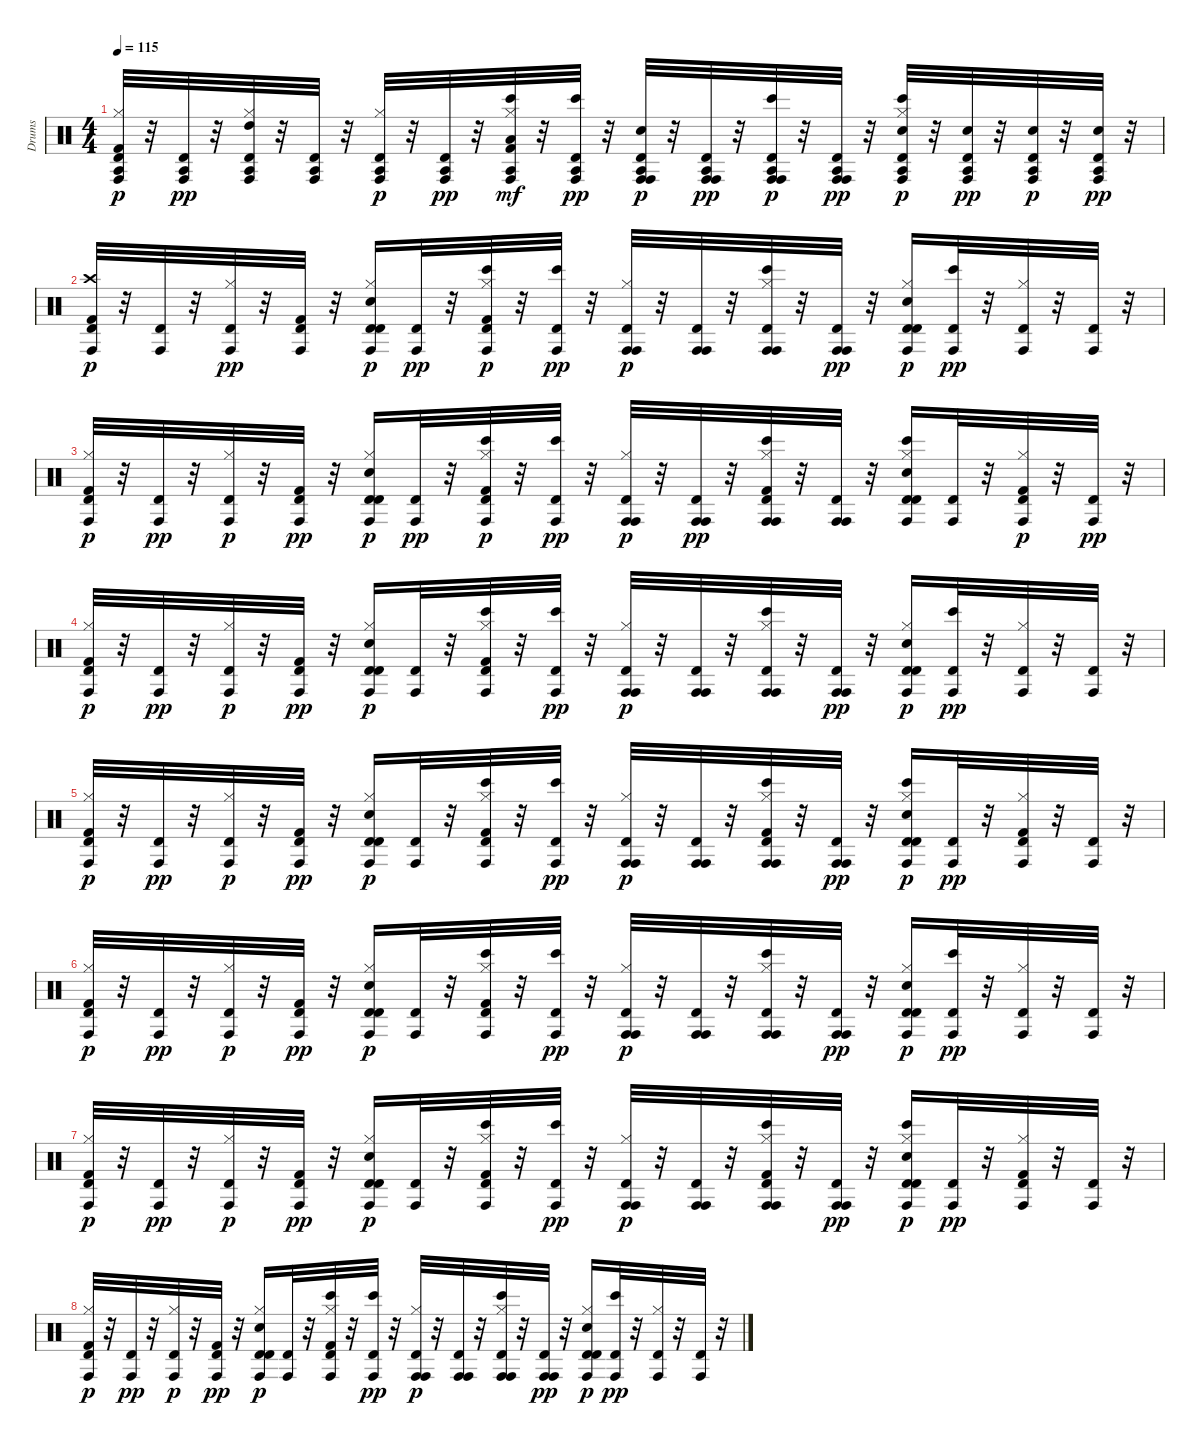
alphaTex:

\track ("Drums" "Drums") {instrument percussion}
\staff {score}
\articulation defaults
\ts (4 4)
\tempo 115
\clef neutral
\ks c
("Conga high (hit)" "Agogo tow (hit)" "Hi-Hat (closed)" "Kick (hit) 2" "Timbale high (hit)").32{dy p} r.32 ("Conga high (hit)" "Agogo tow (hit)" "Timbale high (hit)").32{dy pp} r.32 ("Conga high (hit)" "Agogo tow (hit)" "High Tom (hit)" "Hi-Hat (closed)" "Timbale high (hit)").32 r.32 ("Conga high (hit)" "Agogo tow (hit)" "Timbale high (hit)").32 r.32 ("Conga high (hit)" "Agogo tow (hit)" "Hi-Hat (closed)" "Timbale high (hit)").32{dy p} r.32 ("Conga high (hit)" "Agogo tow (hit)" "Timbale high (hit)").32{dy pp} r.32 ("Conga high (hit)" "Agogo tow (hit)" "Bongo High (hit)" "Low Tom (hit)" "Hi-Hat (closed)" "Kick (hit) 2").32{dy mf} r.32 ("Conga high (hit)" "Agogo tow (hit)" "Bongo High (hit)" "Timbale high (hit)").32{dy pp} r.32 ("Conga high (hit)" "Conga high (hit)" "Agogo tow (hit)" "Electric Snare (hit)" "Timbale high (hit)").32{dy p} r.32 ("Conga high (hit)" "Conga high (hit)" "Agogo tow (hit)" "Timbale high (hit)").32{dy pp} r.32 ("Conga high (hit)" "Conga high (hit)" "Agogo tow (hit)" "Bongo High (hit)" "Timbale high (hit)").32{dy p} r.32 ("Conga high (hit)" "Conga high (hit)" "Agogo tow (hit)" "Timbale high (hit)").32{dy pp} r.32 ("Conga high (hit)" "Agogo tow (hit)" "Bongo High (hit)" "Electric Snare (hit)" "Hi-Hat (closed)" "Timbale high (hit)").32{dy p} r.32 ("Conga high (hit)" "Agogo tow (hit)" "Electric Snare (hit)" "Timbale high (hit)").32{dy pp} r.32 ("Conga high (hit)" "Agogo tow (hit)" "Electric Snare (hit)" "Timbale high (hit)").32{dy p} r.32 ("Conga high (hit)" "Agogo tow (hit)" "Electric Snare (hit)" "Timbale high (hit)").32{dy pp} r.32 |
("Conga high (hit)" "Crash high (hit)" "Kick (hit) 2" "Timbale high (hit)").32{dy p} r.32 ("Conga high (hit)" "Timbale high (hit)").32 r.32 ("Conga high (hit)" "Hi-Hat (closed)" "Timbale high (hit)").32{dy pp} r.32 ("Conga high (hit)" "Kick (hit) 2" "Timbale high (hit)").32 r.32 ("Conga high (hit)" "Timbale high (hit)" "Hi-Hat (closed)" "Electric Snare (hit)" "Timbale high (hit)").16{dy p} ("Conga high (hit)" "Timbale high (hit)").32{dy pp} r.32 ("Conga high (hit)" "Bongo High (hit)" "Hi-Hat (closed)" "Kick (hit) 2" "Timbale high (hit)").32{dy p} r.32 ("Conga high (hit)" "Bongo High (hit)" "Timbale high (hit)").32{dy pp} r.32 ("Conga high (hit)" "Conga high (hit)" "Hi-Hat (closed)" "Timbale high (hit)").32{dy p} r.32 ("Conga high (hit)" "Conga high (hit)" "Timbale high (hit)").32 r.32 ("Conga high (hit)" "Conga high (hit)" "Bongo High (hit)" "Hi-Hat (closed)" "Timbale high (hit)").32 r.32 ("Conga high (hit)" "Conga high (hit)" "Timbale high (hit)").32{dy pp} r.32 ("Conga high (hit)" "Timbale high (hit)" "Hi-Hat (closed)" "Electric Snare (hit)" "Timbale high (hit)").16{dy p} ("Conga high (hit)" "Bongo High (hit)" "Timbale high (hit)").32{dy pp} r.32 ("Conga high (hit)" "Hi-Hat (closed)" "Timbale high (hit)").32 r.32 ("Conga high (hit)" "Timbale high (hit)").32 r.32 |
("Conga high (hit)" "Hi-Hat (closed)" "Kick (hit) 2" "Timbale high (hit)").32{dy p} r.32 ("Conga high (hit)" "Timbale high (hit)").32{dy pp} r.32 ("Conga high (hit)" "Hi-Hat (closed)" "Timbale high (hit)").32{dy p} r.32 ("Conga high (hit)" "Kick (hit) 2" "Timbale high (hit)").32{dy pp} r.32 ("Conga high (hit)" "Timbale high (hit)" "Hi-Hat (closed)" "Electric Snare (hit)" "Timbale high (hit)").16{dy p} ("Conga high (hit)" "Timbale high (hit)").32{dy pp} r.32 ("Conga high (hit)" "Bongo High (hit)" "Hi-Hat (closed)" "Kick (hit) 2" "Timbale high (hit)").32{dy p} r.32 ("Conga high (hit)" "Bongo High (hit)" "Timbale high (hit)").32{dy pp} r.32 ("Conga high (hit)" "Conga high (hit)" "Hi-Hat (closed)" "Timbale high (hit)").32{dy p} r.32 ("Conga high (hit)" "Conga high (hit)" "Timbale high (hit)").32{dy pp} r.32 ("Conga high (hit)" "Conga high (hit)" "Bongo High (hit)" "Kick (hit) 2" "Hi-Hat (closed)" "Timbale high (hit)").32 r.32 ("Conga high (hit)" "Conga high (hit)" "Timbale high (hit)").32 r.32 ("Conga high (hit)" "Bongo High (hit)" "Timbale high (hit)" "Hi-Hat (closed)" "Electric Snare (hit)" "Timbale high (hit)").16 ("Conga high (hit)" "Timbale high (hit)").32 r.32 ("Conga high (hit)" "Kick (hit) 2" "Hi-Hat (closed)" "Timbale high (hit)").32{dy p} r.32 ("Conga high (hit)" "Timbale high (hit)").32{dy pp} r.32 |
("Conga high (hit)" "Hi-Hat (closed)" "Kick (hit) 2" "Timbale high (hit)").32{dy p} r.32 ("Conga high (hit)" "Timbale high (hit)").32{dy pp} r.32 ("Conga high (hit)" "Hi-Hat (closed)" "Timbale high (hit)").32{dy p} r.32 ("Conga high (hit)" "Kick (hit) 2" "Timbale high (hit)").32{dy pp} r.32 ("Conga high (hit)" "Timbale high (hit)" "Hi-Hat (closed)" "Electric Snare (hit)" "Timbale high (hit)").16{dy p} ("Conga high (hit)" "Timbale high (hit)").32 r.32 ("Conga high (hit)" "Bongo High (hit)" "Hi-Hat (closed)" "Kick (hit) 2" "Timbale high (hit)").32 r.32 ("Conga high (hit)" "Bongo High (hit)" "Timbale high (hit)").32{dy pp} r.32 ("Conga high (hit)" "Conga high (hit)" "Hi-Hat (closed)" "Timbale high (hit)").32{dy p} r.32 ("Conga high (hit)" "Conga high (hit)" "Timbale high (hit)").32 r.32 ("Conga high (hit)" "Conga high (hit)" "Bongo High (hit)" "Hi-Hat (closed)" "Timbale high (hit)").32 r.32 ("Conga high (hit)" "Conga high (hit)" "Timbale high (hit)").32{dy pp} r.32 ("Conga high (hit)" "Timbale high (hit)" "Hi-Hat (closed)" "Electric Snare (hit)" "Timbale high (hit)").16{dy p} ("Conga high (hit)" "Bongo High (hit)" "Timbale high (hit)").32{dy pp} r.32 ("Conga high (hit)" "Hi-Hat (closed)" "Timbale high (hit)").32 r.32 ("Conga high (hit)" "Timbale high (hit)").32 r.32 |
("Conga high (hit)" "Hi-Hat (closed)" "Kick (hit) 2" "Timbale high (hit)").32{dy p} r.32 ("Conga high (hit)" "Timbale high (hit)").32{dy pp} r.32 ("Conga high (hit)" "Hi-Hat (closed)" "Timbale high (hit)").32{dy p} r.32 ("Conga high (hit)" "Kick (hit) 2" "Timbale high (hit)").32{dy pp} r.32 ("Conga high (hit)" "Timbale high (hit)" "Hi-Hat (closed)" "Electric Snare (hit)" "Timbale high (hit)").16{dy p} ("Conga high (hit)" "Timbale high (hit)").32 r.32 ("Conga high (hit)" "Bongo High (hit)" "Hi-Hat (closed)" "Kick (hit) 2" "Timbale high (hit)").32 r.32 ("Conga high (hit)" "Bongo High (hit)" "Timbale high (hit)").32{dy pp} r.32 ("Conga high (hit)" "Conga high (hit)" "Hi-Hat (closed)" "Timbale high (hit)").32{dy p} r.32 ("Conga high (hit)" "Conga high (hit)" "Timbale high (hit)").32 r.32 ("Conga high (hit)" "Conga high (hit)" "Bongo High (hit)" "Kick (hit) 2" "Hi-Hat (closed)" "Timbale high (hit)").32 r.32 ("Conga high (hit)" "Conga high (hit)" "Timbale high (hit)").32{dy pp} r.32 ("Conga high (hit)" "Bongo High (hit)" "Timbale high (hit)" "Hi-Hat (closed)" "Electric Snare (hit)" "Timbale high (hit)").16{dy p} ("Conga high (hit)" "Timbale high (hit)").32{dy pp} r.32 ("Conga high (hit)" "Kick (hit) 2" "Hi-Hat (closed)" "Timbale high (hit)").32 r.32 ("Conga high (hit)" "Timbale high (hit)").32 r.32 |
("Conga high (hit)" "Hi-Hat (closed)" "Kick (hit) 2" "Timbale high (hit)").32{dy p} r.32 ("Conga high (hit)" "Timbale high (hit)").32{dy pp} r.32 ("Conga high (hit)" "Hi-Hat (closed)" "Timbale high (hit)").32{dy p} r.32 ("Conga high (hit)" "Kick (hit) 2" "Timbale high (hit)").32{dy pp} r.32 ("Conga high (hit)" "Timbale high (hit)" "Hi-Hat (closed)" "Electric Snare (hit)" "Timbale high (hit)").16{dy p} ("Conga high (hit)" "Timbale high (hit)").32 r.32 ("Conga high (hit)" "Bongo High (hit)" "Hi-Hat (closed)" "Kick (hit) 2" "Timbale high (hit)").32 r.32 ("Conga high (hit)" "Bongo High (hit)" "Timbale high (hit)").32{dy pp} r.32 ("Conga high (hit)" "Conga high (hit)" "Hi-Hat (closed)" "Timbale high (hit)").32{dy p} r.32 ("Conga high (hit)" "Conga high (hit)" "Timbale high (hit)").32 r.32 ("Conga high (hit)" "Conga high (hit)" "Bongo High (hit)" "Hi-Hat (closed)" "Timbale high (hit)").32 r.32 ("Conga high (hit)" "Conga high (hit)" "Timbale high (hit)").32{dy pp} r.32 ("Conga high (hit)" "Timbale high (hit)" "Hi-Hat (closed)" "Electric Snare (hit)" "Timbale high (hit)").16{dy p} ("Conga high (hit)" "Bongo High (hit)" "Timbale high (hit)").32{dy pp} r.32 ("Conga high (hit)" "Hi-Hat (closed)" "Timbale high (hit)").32 r.32 ("Conga high (hit)" "Timbale high (hit)").32 r.32 |
("Conga high (hit)" "Hi-Hat (closed)" "Kick (hit) 2" "Timbale high (hit)").32{dy p} r.32 ("Conga high (hit)" "Timbale high (hit)").32{dy pp} r.32 ("Conga high (hit)" "Hi-Hat (closed)" "Timbale high (hit)").32{dy p} r.32 ("Conga high (hit)" "Kick (hit) 2" "Timbale high (hit)").32{dy pp} r.32 ("Conga high (hit)" "Timbale high (hit)" "Hi-Hat (closed)" "Electric Snare (hit)" "Timbale high (hit)").16{dy p} ("Conga high (hit)" "Timbale high (hit)").32 r.32 ("Conga high (hit)" "Bongo High (hit)" "Hi-Hat (closed)" "Kick (hit) 2" "Timbale high (hit)").32 r.32 ("Conga high (hit)" "Bongo High (hit)" "Timbale high (hit)").32{dy pp} r.32 ("Conga high (hit)" "Conga high (hit)" "Hi-Hat (closed)" "Timbale high (hit)").32{dy p} r.32 ("Conga high (hit)" "Conga high (hit)" "Timbale high (hit)").32 r.32 ("Conga high (hit)" "Conga high (hit)" "Bongo High (hit)" "Kick (hit) 2" "Hi-Hat (closed)" "Timbale high (hit)").32 r.32 ("Conga high (hit)" "Conga high (hit)" "Timbale high (hit)").32{dy pp} r.32 ("Conga high (hit)" "Bongo High (hit)" "Timbale high (hit)" "Hi-Hat (closed)" "Electric Snare (hit)" "Timbale high (hit)").16{dy p} ("Conga high (hit)" "Timbale high (hit)").32{dy pp} r.32 ("Conga high (hit)" "Kick (hit) 2" "Hi-Hat (closed)" "Timbale high (hit)").32 r.32 ("Conga high (hit)" "Timbale high (hit)").32 r.32 |
("Conga high (hit)" "Hi-Hat (closed)" "Kick (hit) 2" "Timbale high (hit)").32{dy p} r.32 ("Conga high (hit)" "Timbale high (hit)").32{dy pp} r.32 ("Conga high (hit)" "Hi-Hat (closed)" "Timbale high (hit)").32{dy p} r.32 ("Conga high (hit)" "Kick (hit) 2" "Timbale high (hit)").32{dy pp} r.32 ("Conga high (hit)" "Timbale high (hit)" "Hi-Hat (closed)" "Electric Snare (hit)" "Timbale high (hit)").16{dy p} ("Conga high (hit)" "Timbale high (hit)").32 r.32 ("Conga high (hit)" "Bongo High (hit)" "Hi-Hat (closed)" "Kick (hit) 2" "Timbale high (hit)").32 r.32 ("Conga high (hit)" "Bongo High (hit)" "Timbale high (hit)").32{dy pp} r.32 ("Conga high (hit)" "Conga high (hit)" "Hi-Hat (closed)" "Timbale high (hit)").32{dy p} r.32 ("Conga high (hit)" "Conga high (hit)" "Timbale high (hit)").32 r.32 ("Conga high (hit)" "Conga high (hit)" "Bongo High (hit)" "Hi-Hat (closed)" "Timbale high (hit)").32 r.32 ("Conga high (hit)" "Conga high (hit)" "Timbale high (hit)").32{dy pp} r.32 ("Conga high (hit)" "Timbale high (hit)" "Hi-Hat (closed)" "Electric Snare (hit)" "Timbale high (hit)").16{dy p} ("Conga high (hit)" "Bongo High (hit)" "Timbale high (hit)").32{dy pp} r.32 ("Conga high (hit)" "Hi-Hat (closed)" "Timbale high (hit)").32 r.32 ("Conga high (hit)" "Timbale high (hit)").32 r.32
